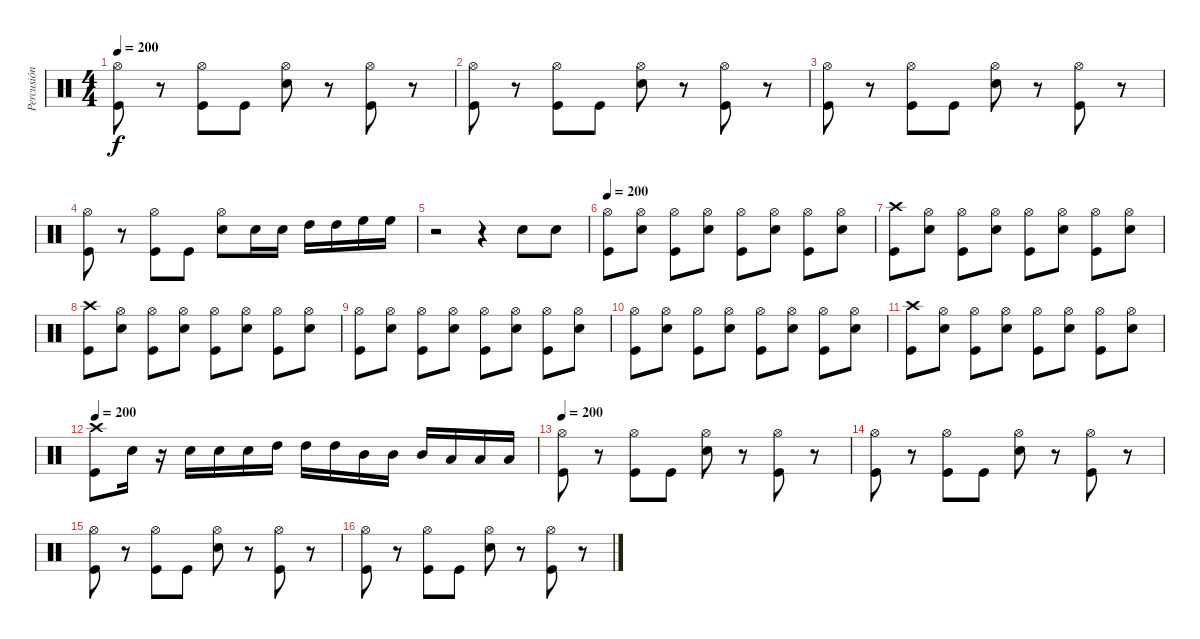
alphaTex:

\track ("Percusión" "Percusión") {instrument percussion}
\staff {score}
\articulation defaults
\ts (4 4)
\tempo 200
\clef neutral
\ks c
("Hi-Hat (open)" "Kick (hit)").8{dy f} r.8 ("Hi-Hat (open)" "Kick (hit)").8 "Kick (hit)".8 ("Hi-Hat (open)" "Snare (hit) 2").8 r.8 ("Hi-Hat (open)" "Kick (hit)").8 r.8 |
("Hi-Hat (open)" "Kick (hit)").8 r.8 ("Hi-Hat (open)" "Kick (hit)").8 "Kick (hit)".8 ("Hi-Hat (open)" "Snare (hit) 2").8 r.8 ("Hi-Hat (open)" "Kick (hit)").8 r.8 |
("Hi-Hat (open)" "Kick (hit)").8 r.8 ("Hi-Hat (open)" "Kick (hit)").8 "Kick (hit)".8 ("Hi-Hat (open)" "Snare (hit) 2").8 r.8 ("Hi-Hat (open)" "Kick (hit)").8 r.8 |
("Hi-Hat (open)" "Kick (hit)").8 r.8 ("Hi-Hat (open)" "Kick (hit)").8 "Kick (hit)".8 ("Hi-Hat (open)" "Snare (hit) 2").8 "Snare (hit) 2".16 "Snare (hit) 2".16 "High Tom (hit)".16 "High Tom (hit)".16 "High Floor Tom (hit)".16 "High Floor Tom (hit)".16 |
r.2 r.4 "Snare (hit) 2".8 "Snare (hit) 2".8 |
\tempo 200
("Hi-Hat (open)" "Kick (hit)").8 ("Hi-Hat (open)" "Snare (hit) 2").8 ("Hi-Hat (open)" "Kick (hit)").8 ("Hi-Hat (open)" "Snare (hit) 2").8 ("Hi-Hat (open)" "Kick (hit)").8 ("Hi-Hat (open)" "Snare (hit) 2").8 ("Hi-Hat (open)" "Kick (hit)").8 ("Hi-Hat (open)" "Snare (hit) 2").8 |
("Crash high (hit)" "Kick (hit)").8 ("Hi-Hat (open)" "Snare (hit) 2").8 ("Hi-Hat (open)" "Kick (hit)").8 ("Hi-Hat (open)" "Snare (hit) 2").8 ("Hi-Hat (open)" "Kick (hit)").8 ("Hi-Hat (open)" "Snare (hit) 2").8 ("Hi-Hat (open)" "Kick (hit)").8 ("Hi-Hat (open)" "Snare (hit) 2").8 |
("Crash high (hit)" "Kick (hit)").8 ("Hi-Hat (open)" "Snare (hit) 2").8 ("Hi-Hat (open)" "Kick (hit)").8 ("Hi-Hat (open)" "Snare (hit) 2").8 ("Hi-Hat (open)" "Kick (hit)").8 ("Hi-Hat (open)" "Snare (hit) 2").8 ("Hi-Hat (open)" "Kick (hit)").8 ("Hi-Hat (open)" "Snare (hit) 2").8 |
("Hi-Hat (open)" "Kick (hit)").8 ("Hi-Hat (open)" "Snare (hit) 2").8 ("Hi-Hat (open)" "Kick (hit)").8 ("Hi-Hat (open)" "Snare (hit) 2").8 ("Hi-Hat (open)" "Kick (hit)").8 ("Hi-Hat (open)" "Snare (hit) 2").8 ("Hi-Hat (open)" "Kick (hit)").8 ("Hi-Hat (open)" "Snare (hit) 2").8 |
("Hi-Hat (open)" "Kick (hit)").8 ("Hi-Hat (open)" "Snare (hit) 2").8 ("Hi-Hat (open)" "Kick (hit)").8 ("Hi-Hat (open)" "Snare (hit) 2").8 ("Hi-Hat (open)" "Kick (hit)").8 ("Hi-Hat (open)" "Snare (hit) 2").8 ("Hi-Hat (open)" "Kick (hit)").8 ("Hi-Hat (open)" "Snare (hit) 2").8 |
("Crash high (hit)" "Kick (hit)").8 ("Hi-Hat (open)" "Snare (hit) 2").8 ("Hi-Hat (open)" "Kick (hit)").8 ("Hi-Hat (open)" "Snare (hit) 2").8 ("Hi-Hat (open)" "Kick (hit)").8 ("Hi-Hat (open)" "Snare (hit) 2").8 ("Hi-Hat (open)" "Kick (hit)").8 ("Hi-Hat (open)" "Snare (hit) 2").8 |
\tempo 200
("Crash high (hit)" "Kick (hit)").8 "Snare (hit) 2".16 r.16 "Snare (hit) 2".16 "Snare (hit) 2".16 "Snare (hit) 2".16 "High Tom (hit)".16 "High Tom (hit)".16 "High Tom (hit)".16 "Mid Tom (hit)".16 "Mid Tom (hit)".16 "Mid Tom (hit)".16 "Low Tom (hit)".16 "Low Tom (hit)".16 "Low Tom (hit)".16 |
\tempo 200
("Hi-Hat (open)" "Kick (hit)").8 r.8 ("Hi-Hat (open)" "Kick (hit)").8 "Kick (hit)".8 ("Hi-Hat (open)" "Snare (hit) 2").8 r.8 ("Hi-Hat (open)" "Kick (hit)").8 r.8 |
("Hi-Hat (open)" "Kick (hit)").8 r.8 ("Hi-Hat (open)" "Kick (hit)").8 "Kick (hit)".8 ("Hi-Hat (open)" "Snare (hit) 2").8 r.8 ("Hi-Hat (open)" "Kick (hit)").8 r.8 |
("Hi-Hat (open)" "Kick (hit)").8 r.8 ("Hi-Hat (open)" "Kick (hit)").8 "Kick (hit)".8 ("Hi-Hat (open)" "Snare (hit) 2").8 r.8 ("Hi-Hat (open)" "Kick (hit)").8 r.8 |
("Hi-Hat (open)" "Kick (hit)").8 r.8 ("Hi-Hat (open)" "Kick (hit)").8 "Kick (hit)".8 ("Hi-Hat (open)" "Snare (hit) 2").8 r.8 ("Hi-Hat (open)" "Kick (hit)").8 r.8
